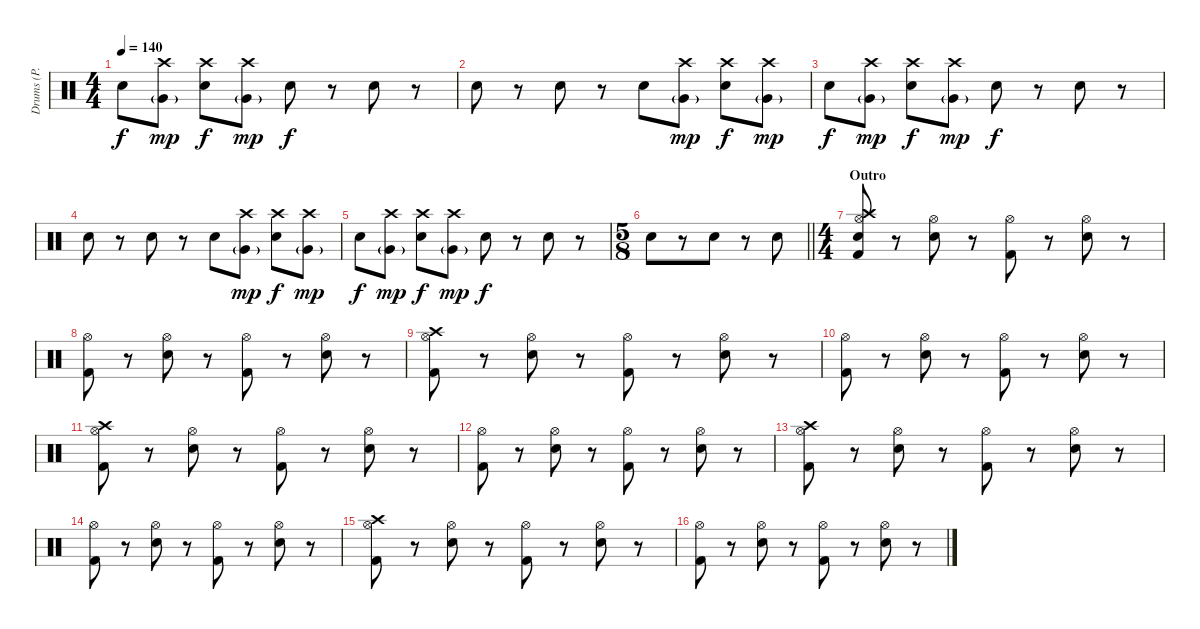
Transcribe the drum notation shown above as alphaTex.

\track ("Drums (P. Rudd)" "Drums (P. ") {instrument percussion}
\staff {score}
\articulation defaults
\ts (4 4)
\tempo 140
\clef neutral
\ks c "Electric Snare (hit)".8{dy f}
("Crash high (hit)" "Very Low Tom (hit)"{g}).8{dy mp} ("Crash high (hit)" "Electric Snare (hit)").8{dy f} ("Crash high (hit)" "Very Low Tom (hit)"{g}).8{dy mp} "Electric Snare (hit)".8{dy f} r.8 "Electric Snare (hit)".8 r.8 |
"Electric Snare (hit)".8 r.8 "Electric Snare (hit)".8 r.8 "Electric Snare (hit)".8 ("Crash high (hit)" "Very Low Tom (hit)"{g}).8{dy mp} ("Crash high (hit)" "Electric Snare (hit)").8{dy f} ("Crash high (hit)" "Very Low Tom (hit)"{g}).8{dy mp} |
"Electric Snare (hit)".8{dy f} ("Crash high (hit)" "Very Low Tom (hit)"{g}).8{dy mp} ("Crash high (hit)" "Electric Snare (hit)").8{dy f} ("Crash high (hit)" "Very Low Tom (hit)"{g}).8{dy mp} "Electric Snare (hit)".8{dy f} r.8 "Electric Snare (hit)".8 r.8 |
"Electric Snare (hit)".8 r.8 "Electric Snare (hit)".8 r.8 "Electric Snare (hit)".8 ("Crash high (hit)" "Very Low Tom (hit)"{g}).8{dy mp} ("Crash high (hit)" "Electric Snare (hit)").8{dy f} ("Crash high (hit)" "Very Low Tom (hit)"{g}).8{dy mp} |
"Electric Snare (hit)".8{dy f} ("Crash high (hit)" "Very Low Tom (hit)"{g}).8{dy mp} ("Crash high (hit)" "Electric Snare (hit)").8{dy f} ("Crash high (hit)" "Very Low Tom (hit)"{g}).8{dy mp} "Electric Snare (hit)".8{dy f} r.8 "Electric Snare (hit)".8 r.8 |
\ts (5 8)
\barLineRight lightlight "Electric Snare (hit)".8
r.8 "Electric Snare (hit)".8 r.8 "Electric Snare (hit)".8 |
\ts (4 4)
\section ("" "Outro")
("Hi-Hat (open)" "Crash high (hit)" "Electric Snare (hit)" "Kick (hit) 2").8 r.8 ("Hi-Hat (open)" "Snare (hit) 2").8 r.8 ("Hi-Hat (open)" "Kick (hit) 2").8 r.8 ("Hi-Hat (open)" "Snare (hit) 2").8 r.8 |
("Hi-Hat (open)" "Kick (hit) 2").8 r.8 ("Hi-Hat (open)" "Snare (hit) 2").8 r.8 ("Hi-Hat (open)" "Kick (hit) 2").8 r.8 ("Hi-Hat (open)" "Snare (hit) 2").8 r.8 |
("Hi-Hat (open)" "Crash high (hit)" "Kick (hit) 2").8 r.8 ("Hi-Hat (open)" "Snare (hit) 2").8 r.8 ("Hi-Hat (open)" "Kick (hit) 2").8 r.8 ("Hi-Hat (open)" "Snare (hit) 2").8 r.8 |
("Hi-Hat (open)" "Kick (hit) 2").8 r.8 ("Hi-Hat (open)" "Snare (hit) 2").8 r.8 ("Hi-Hat (open)" "Kick (hit) 2").8 r.8 ("Hi-Hat (open)" "Snare (hit) 2").8 r.8 |
("Hi-Hat (open)" "Crash high (hit)" "Kick (hit) 2").8 r.8 ("Hi-Hat (open)" "Snare (hit) 2").8 r.8 ("Hi-Hat (open)" "Kick (hit) 2").8 r.8 ("Hi-Hat (open)" "Snare (hit) 2").8 r.8 |
("Hi-Hat (open)" "Kick (hit) 2").8 r.8 ("Hi-Hat (open)" "Snare (hit) 2").8 r.8 ("Hi-Hat (open)" "Kick (hit) 2").8 r.8 ("Hi-Hat (open)" "Snare (hit) 2").8 r.8 |
("Hi-Hat (open)" "Crash high (hit)" "Kick (hit) 2").8 r.8 ("Hi-Hat (open)" "Snare (hit) 2").8 r.8 ("Hi-Hat (open)" "Kick (hit) 2").8 r.8 ("Hi-Hat (open)" "Snare (hit) 2").8 r.8 |
("Hi-Hat (open)" "Kick (hit) 2").8 r.8 ("Hi-Hat (open)" "Snare (hit) 2").8 r.8 ("Hi-Hat (open)" "Kick (hit) 2").8 r.8 ("Hi-Hat (open)" "Snare (hit) 2").8 r.8 |
("Hi-Hat (open)" "Crash high (hit)" "Kick (hit) 2").8 r.8 ("Hi-Hat (open)" "Snare (hit) 2").8 r.8 ("Hi-Hat (open)" "Kick (hit) 2").8 r.8 ("Hi-Hat (open)" "Snare (hit) 2").8 r.8 |
("Hi-Hat (open)" "Kick (hit) 2").8 r.8 ("Hi-Hat (open)" "Snare (hit) 2").8 r.8 ("Hi-Hat (open)" "Kick (hit) 2").8 r.8 ("Hi-Hat (open)" "Snare (hit) 2").8 r.8
